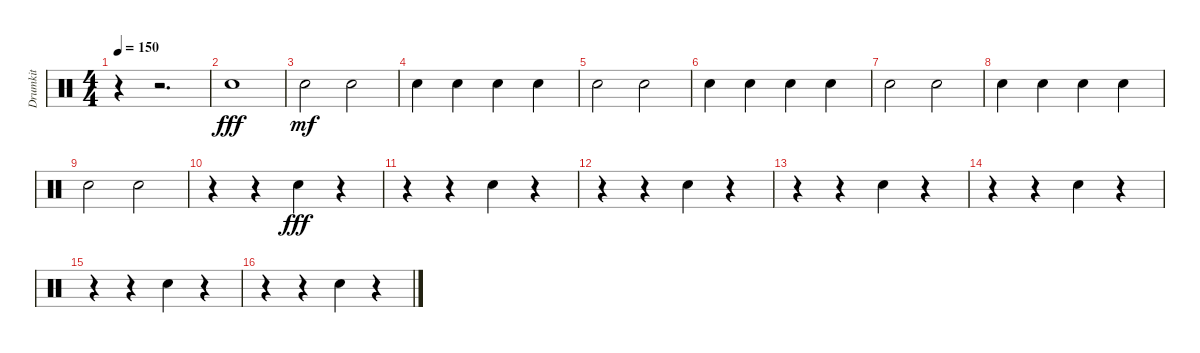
\track ("Drumkit" "Drumkit") {instrument percussion}
\staff {score}
\articulation defaults
\ts (4 4)
\tempo 150
\clef neutral
\ks c
r.4{dy fff} r.2{d} |
"Snare (hit) 2".1 |
"Snare (hit) 2".2{dy mf} "Snare (hit) 2".2 |
"Snare (hit) 2".4 "Snare (hit) 2".4 "Snare (hit) 2".4 "Snare (hit) 2".4 |
"Snare (hit) 2".2 "Snare (hit) 2".2 |
"Snare (hit) 2".4 "Snare (hit) 2".4 "Snare (hit) 2".4 "Snare (hit) 2".4 |
"Snare (hit) 2".2 "Snare (hit) 2".2 |
"Snare (hit) 2".4 "Snare (hit) 2".4 "Snare (hit) 2".4 "Snare (hit) 2".4 |
"Snare (hit) 2".2 "Snare (hit) 2".2 |
r.4 r.4 "Snare (hit) 2".4{dy fff} r.4 |
r.4 r.4 "Snare (hit) 2".4 r.4 |
r.4 r.4 "Snare (hit) 2".4 r.4 |
r.4 r.4 "Snare (hit) 2".4 r.4 |
r.4 r.4 "Snare (hit) 2".4 r.4 |
r.4 r.4 "Snare (hit) 2".4 r.4 |
r.4 r.4 "Snare (hit) 2".4 r.4
